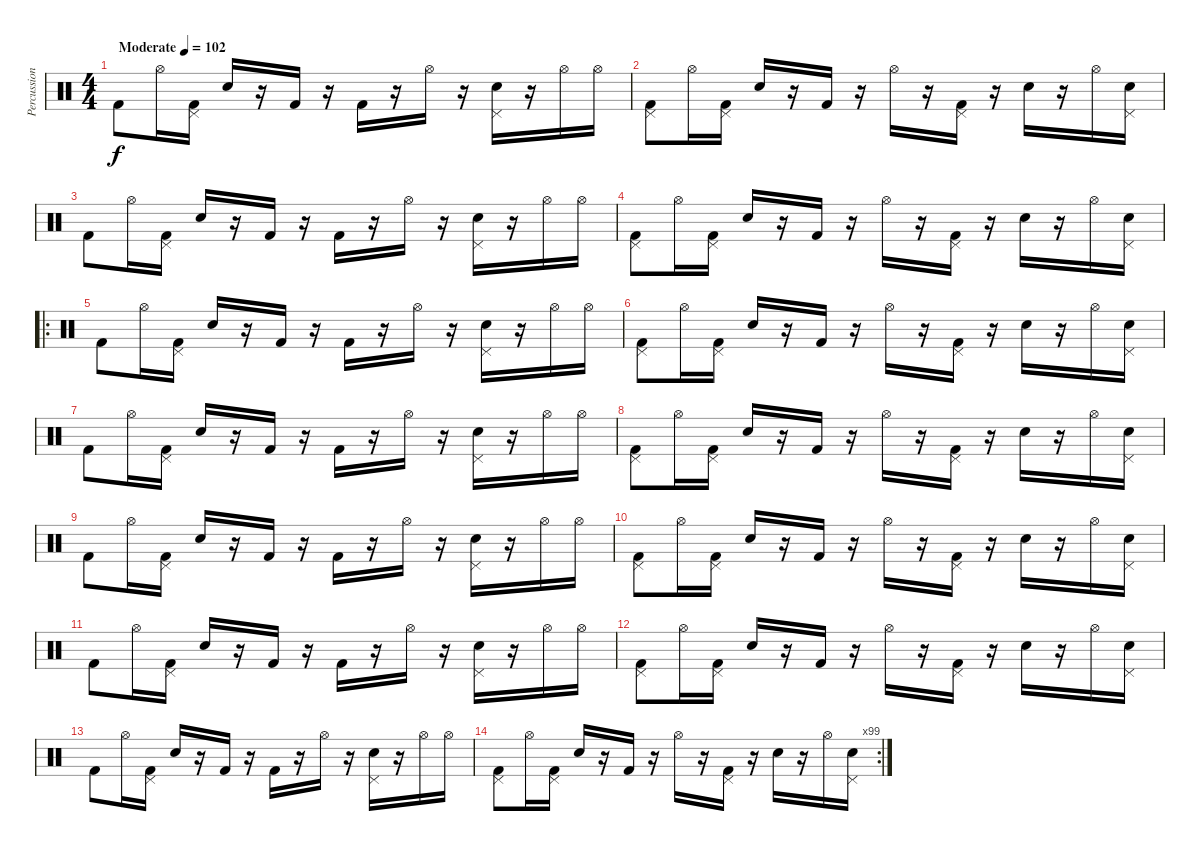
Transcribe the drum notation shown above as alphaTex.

\track ("Percussion" "Percussion") {instrument percussion}
\staff {score}
\articulation defaults
\ts (4 4)
\tempo (102 "Moderate")
\clef neutral
\ks c "Kick (hit) 2".8{dy f} "Hi-Hat (open)".16
("Pedal Hi-Hat (hit)" "Kick (hit) 2").16 "Snare (hit) 2".16 r.16 "Kick (hit) 2".16 r.16 "Kick (hit) 2".16 r.16 "Hi-Hat (open)".16 r.16 ("Pedal Hi-Hat (hit)" "Snare (hit) 2").16 r.16 "Hi-Hat (open)".16 "Hi-Hat (open)".16 |
("Pedal Hi-Hat (hit)" "Kick (hit) 2").8 "Hi-Hat (open)".16 ("Pedal Hi-Hat (hit)" "Kick (hit) 2").16 "Snare (hit) 2".16 r.16 "Kick (hit) 2".16 r.16 "Hi-Hat (open)".16 r.16 ("Pedal Hi-Hat (hit)" "Kick (hit) 2").16 r.16 "Snare (hit) 2".16 r.16 "Hi-Hat (open)".16 ("Pedal Hi-Hat (hit)" "Snare (hit) 2").16 |
"Kick (hit) 2".8 "Hi-Hat (open)".16 ("Pedal Hi-Hat (hit)" "Kick (hit) 2").16 "Snare (hit) 2".16 r.16 "Kick (hit) 2".16 r.16 "Kick (hit) 2".16 r.16 "Hi-Hat (open)".16 r.16 ("Pedal Hi-Hat (hit)" "Snare (hit) 2").16 r.16 "Hi-Hat (open)".16 "Hi-Hat (open)".16 |
("Pedal Hi-Hat (hit)" "Kick (hit) 2").8 "Hi-Hat (open)".16 ("Pedal Hi-Hat (hit)" "Kick (hit) 2").16 "Snare (hit) 2".16 r.16 "Kick (hit) 2".16 r.16 "Hi-Hat (open)".16 r.16 ("Pedal Hi-Hat (hit)" "Kick (hit) 2").16 r.16 "Snare (hit) 2".16 r.16 "Hi-Hat (open)".16 ("Pedal Hi-Hat (hit)" "Snare (hit) 2").16 |
\ro "Kick (hit) 2".8 "Hi-Hat (open)".16
("Pedal Hi-Hat (hit)" "Kick (hit) 2").16 "Snare (hit) 2".16 r.16 "Kick (hit) 2".16 r.16 "Kick (hit) 2".16 r.16 "Hi-Hat (open)".16 r.16 ("Pedal Hi-Hat (hit)" "Snare (hit) 2").16 r.16 "Hi-Hat (open)".16 "Hi-Hat (open)".16 |
("Pedal Hi-Hat (hit)" "Kick (hit) 2").8 "Hi-Hat (open)".16 ("Pedal Hi-Hat (hit)" "Kick (hit) 2").16 "Snare (hit) 2".16 r.16 "Kick (hit) 2".16 r.16 "Hi-Hat (open)".16 r.16 ("Pedal Hi-Hat (hit)" "Kick (hit) 2").16 r.16 "Snare (hit) 2".16 r.16 "Hi-Hat (open)".16 ("Pedal Hi-Hat (hit)" "Snare (hit) 2").16 |
"Kick (hit) 2".8 "Hi-Hat (open)".16 ("Pedal Hi-Hat (hit)" "Kick (hit) 2").16 "Snare (hit) 2".16 r.16 "Kick (hit) 2".16 r.16 "Kick (hit) 2".16 r.16 "Hi-Hat (open)".16 r.16 ("Pedal Hi-Hat (hit)" "Snare (hit) 2").16 r.16 "Hi-Hat (open)".16 "Hi-Hat (open)".16 |
("Pedal Hi-Hat (hit)" "Kick (hit) 2").8 "Hi-Hat (open)".16 ("Pedal Hi-Hat (hit)" "Kick (hit) 2").16 "Snare (hit) 2".16 r.16 "Kick (hit) 2".16 r.16 "Hi-Hat (open)".16 r.16 ("Pedal Hi-Hat (hit)" "Kick (hit) 2").16 r.16 "Snare (hit) 2".16 r.16 "Hi-Hat (open)".16 ("Pedal Hi-Hat (hit)" "Snare (hit) 2").16 |
"Kick (hit) 2".8 "Hi-Hat (open)".16 ("Pedal Hi-Hat (hit)" "Kick (hit) 2").16 "Snare (hit) 2".16 r.16 "Kick (hit) 2".16 r.16 "Kick (hit) 2".16 r.16 "Hi-Hat (open)".16 r.16 ("Pedal Hi-Hat (hit)" "Snare (hit) 2").16 r.16 "Hi-Hat (open)".16 "Hi-Hat (open)".16 |
("Pedal Hi-Hat (hit)" "Kick (hit) 2").8 "Hi-Hat (open)".16 ("Pedal Hi-Hat (hit)" "Kick (hit) 2").16 "Snare (hit) 2".16 r.16 "Kick (hit) 2".16 r.16 "Hi-Hat (open)".16 r.16 ("Pedal Hi-Hat (hit)" "Kick (hit) 2").16 r.16 "Snare (hit) 2".16 r.16 "Hi-Hat (open)".16 ("Pedal Hi-Hat (hit)" "Snare (hit) 2").16 |
"Kick (hit) 2".8 "Hi-Hat (open)".16 ("Pedal Hi-Hat (hit)" "Kick (hit) 2").16 "Snare (hit) 2".16 r.16 "Kick (hit) 2".16 r.16 "Kick (hit) 2".16 r.16 "Hi-Hat (open)".16 r.16 ("Pedal Hi-Hat (hit)" "Snare (hit) 2").16 r.16 "Hi-Hat (open)".16 "Hi-Hat (open)".16 |
("Pedal Hi-Hat (hit)" "Kick (hit) 2").8 "Hi-Hat (open)".16 ("Pedal Hi-Hat (hit)" "Kick (hit) 2").16 "Snare (hit) 2".16 r.16 "Kick (hit) 2".16 r.16 "Hi-Hat (open)".16 r.16 ("Pedal Hi-Hat (hit)" "Kick (hit) 2").16 r.16 "Snare (hit) 2".16 r.16 "Hi-Hat (open)".16 ("Pedal Hi-Hat (hit)" "Snare (hit) 2").16 |
"Kick (hit) 2".8 "Hi-Hat (open)".16 ("Pedal Hi-Hat (hit)" "Kick (hit) 2").16 "Snare (hit) 2".16 r.16 "Kick (hit) 2".16 r.16 "Kick (hit) 2".16 r.16 "Hi-Hat (open)".16 r.16 ("Pedal Hi-Hat (hit)" "Snare (hit) 2").16 r.16 "Hi-Hat (open)".16 "Hi-Hat (open)".16 |
\rc 99
("Pedal Hi-Hat (hit)" "Kick (hit) 2").8 "Hi-Hat (open)".16 ("Pedal Hi-Hat (hit)" "Kick (hit) 2").16 "Snare (hit) 2".16 r.16 "Kick (hit) 2".16 r.16 "Hi-Hat (open)".16 r.16 ("Pedal Hi-Hat (hit)" "Kick (hit) 2").16 r.16 "Snare (hit) 2".16 r.16 "Hi-Hat (open)".16 ("Pedal Hi-Hat (hit)" "Snare (hit) 2").16
